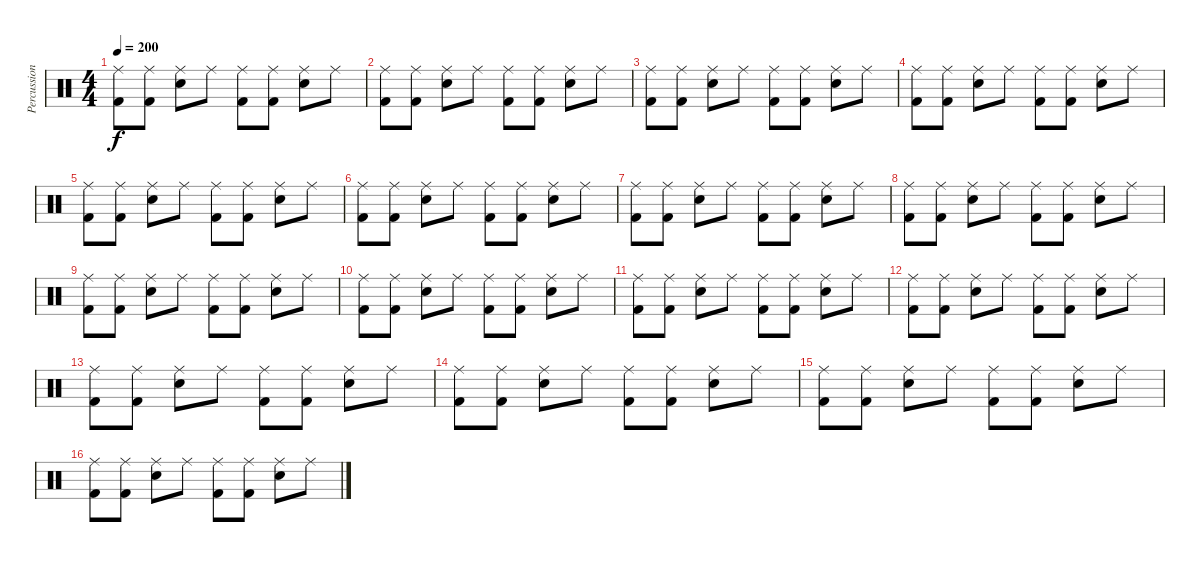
\track ("Percussion" "Percussion") {instrument percussion}
\staff {score}
\articulation defaults
\ts (4 4)
\tempo 200
\clef neutral
\ks c
("Ride (middle)" "Kick (hit) 2").8{dy f} ("Ride (middle)" "Kick (hit) 2").8 ("Ride (middle)" "Snare (hit) 2").8 "Ride (middle)".8 ("Ride (middle)" "Kick (hit) 2").8 ("Ride (middle)" "Kick (hit) 2").8 ("Ride (middle)" "Snare (hit) 2").8 "Ride (middle)".8 |
("Ride (middle)" "Kick (hit) 2").8 ("Ride (middle)" "Kick (hit) 2").8 ("Ride (middle)" "Snare (hit) 2").8 "Ride (middle)".8 ("Ride (middle)" "Kick (hit) 2").8 ("Ride (middle)" "Kick (hit) 2").8 ("Ride (middle)" "Snare (hit) 2").8 "Ride (middle)".8 |
("Ride (middle)" "Kick (hit) 2").8 ("Ride (middle)" "Kick (hit) 2").8 ("Ride (middle)" "Snare (hit) 2").8 "Ride (middle)".8 ("Ride (middle)" "Kick (hit) 2").8 ("Ride (middle)" "Kick (hit) 2").8 ("Ride (middle)" "Snare (hit) 2").8 "Ride (middle)".8 |
("Ride (middle)" "Kick (hit) 2").8 ("Ride (middle)" "Kick (hit) 2").8 ("Ride (middle)" "Snare (hit) 2").8 "Ride (middle)".8 ("Ride (middle)" "Kick (hit) 2").8 ("Ride (middle)" "Kick (hit) 2").8 ("Ride (middle)" "Snare (hit) 2").8 "Ride (middle)".8 |
("Ride (middle)" "Kick (hit) 2").8 ("Ride (middle)" "Kick (hit) 2").8 ("Ride (middle)" "Snare (hit) 2").8 "Ride (middle)".8 ("Ride (middle)" "Kick (hit) 2").8 ("Ride (middle)" "Kick (hit) 2").8 ("Ride (middle)" "Snare (hit) 2").8 "Ride (middle)".8 |
("Ride (middle)" "Kick (hit) 2").8 ("Ride (middle)" "Kick (hit) 2").8 ("Ride (middle)" "Snare (hit) 2").8 "Ride (middle)".8 ("Ride (middle)" "Kick (hit) 2").8 ("Ride (middle)" "Kick (hit) 2").8 ("Ride (middle)" "Snare (hit) 2").8 "Ride (middle)".8 |
("Ride (middle)" "Kick (hit) 2").8 ("Ride (middle)" "Kick (hit) 2").8 ("Ride (middle)" "Snare (hit) 2").8 "Ride (middle)".8 ("Ride (middle)" "Kick (hit) 2").8 ("Ride (middle)" "Kick (hit) 2").8 ("Ride (middle)" "Snare (hit) 2").8 "Ride (middle)".8 |
("Ride (middle)" "Kick (hit) 2").8 ("Ride (middle)" "Kick (hit) 2").8 ("Ride (middle)" "Snare (hit) 2").8 "Ride (middle)".8 ("Ride (middle)" "Kick (hit) 2").8 ("Ride (middle)" "Kick (hit) 2").8 ("Ride (middle)" "Snare (hit) 2").8 "Ride (middle)".8 |
("Ride (middle)" "Kick (hit) 2").8 ("Ride (middle)" "Kick (hit) 2").8 ("Ride (middle)" "Snare (hit) 2").8 "Ride (middle)".8 ("Ride (middle)" "Kick (hit) 2").8 ("Ride (middle)" "Kick (hit) 2").8 ("Ride (middle)" "Snare (hit) 2").8 "Ride (middle)".8 |
("Ride (middle)" "Kick (hit) 2").8 ("Ride (middle)" "Kick (hit) 2").8 ("Ride (middle)" "Snare (hit) 2").8 "Ride (middle)".8 ("Ride (middle)" "Kick (hit) 2").8 ("Ride (middle)" "Kick (hit) 2").8 ("Ride (middle)" "Snare (hit) 2").8 "Ride (middle)".8 |
("Ride (middle)" "Kick (hit) 2").8 ("Ride (middle)" "Kick (hit) 2").8 ("Ride (middle)" "Snare (hit) 2").8 "Ride (middle)".8 ("Ride (middle)" "Kick (hit) 2").8 ("Ride (middle)" "Kick (hit) 2").8 ("Ride (middle)" "Snare (hit) 2").8 "Ride (middle)".8 |
("Ride (middle)" "Kick (hit) 2").8 ("Ride (middle)" "Kick (hit) 2").8 ("Ride (middle)" "Snare (hit) 2").8 "Ride (middle)".8 ("Ride (middle)" "Kick (hit) 2").8 ("Ride (middle)" "Kick (hit) 2").8 ("Ride (middle)" "Snare (hit) 2").8 "Ride (middle)".8 |
("Ride (middle)" "Kick (hit) 2").8 ("Ride (middle)" "Kick (hit) 2").8 ("Ride (middle)" "Snare (hit) 2").8 "Ride (middle)".8 ("Ride (middle)" "Kick (hit) 2").8 ("Ride (middle)" "Kick (hit) 2").8 ("Ride (middle)" "Snare (hit) 2").8 "Ride (middle)".8 |
("Ride (middle)" "Kick (hit) 2").8 ("Ride (middle)" "Kick (hit) 2").8 ("Ride (middle)" "Snare (hit) 2").8 "Ride (middle)".8 ("Ride (middle)" "Kick (hit) 2").8 ("Ride (middle)" "Kick (hit) 2").8 ("Ride (middle)" "Snare (hit) 2").8 "Ride (middle)".8 |
("Ride (middle)" "Kick (hit) 2").8 ("Ride (middle)" "Kick (hit) 2").8 ("Ride (middle)" "Snare (hit) 2").8 "Ride (middle)".8 ("Ride (middle)" "Kick (hit) 2").8 ("Ride (middle)" "Kick (hit) 2").8 ("Ride (middle)" "Snare (hit) 2").8 "Ride (middle)".8 |
("Ride (middle)" "Kick (hit) 2").8 ("Ride (middle)" "Kick (hit) 2").8 ("Ride (middle)" "Snare (hit) 2").8 "Ride (middle)".8 ("Ride (middle)" "Kick (hit) 2").8 ("Ride (middle)" "Kick (hit) 2").8 ("Ride (middle)" "Snare (hit) 2").8 "Ride (middle)".8
